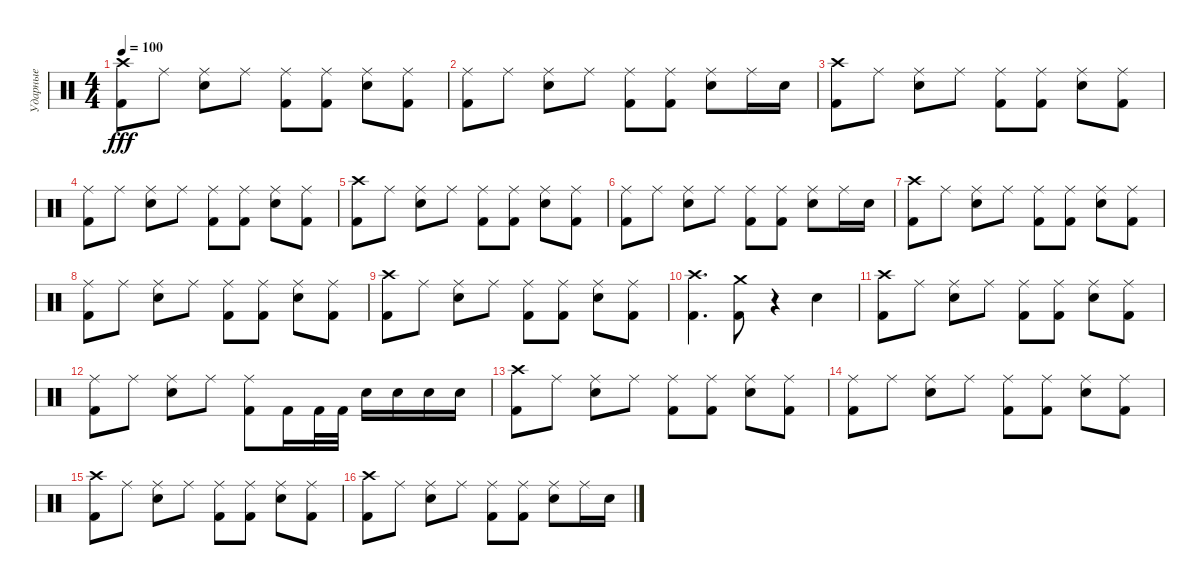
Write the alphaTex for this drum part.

\track ("Ударные" "Ударные") {instrument percussion}
\staff {score}
\articulation defaults
\ts (4 4)
\tempo 100
\clef neutral
\ks c
("Kick (hit) 2" "Crash high (hit)").8{dy fff} "Ride (middle)".8 ("Electric Snare (hit)" "Ride (middle)").8 "Ride (middle)".8 ("Kick (hit) 2" "Ride (middle)").8 ("Kick (hit) 2" "Ride (middle)").8 ("Electric Snare (hit)" "Ride (middle)").8 ("Ride (middle)" "Kick (hit) 2").8 |
("Kick (hit) 2" "Ride (middle)").8 "Ride (middle)".8 ("Electric Snare (hit)" "Ride (middle)").8 "Ride (middle)".8 ("Kick (hit) 2" "Ride (middle)").8 ("Kick (hit) 2" "Ride (middle)").8 ("Electric Snare (hit)" "Ride (middle)").8 "Ride (middle)".16 "Electric Snare (hit)".16 |
("Kick (hit) 2" "Crash high (hit)").8 "Ride (middle)".8 ("Electric Snare (hit)" "Ride (middle)").8 "Ride (middle)".8 ("Kick (hit) 2" "Ride (middle)").8 ("Kick (hit) 2" "Ride (middle)").8 ("Electric Snare (hit)" "Ride (middle)").8 ("Ride (middle)" "Kick (hit) 2").8 |
("Kick (hit) 2" "Ride (middle)").8 "Ride (middle)".8 ("Electric Snare (hit)" "Ride (middle)").8 "Ride (middle)".8 ("Kick (hit) 2" "Ride (middle)").8 ("Kick (hit) 2" "Ride (middle)").8 ("Electric Snare (hit)" "Ride (middle)").8 ("Ride (middle)" "Kick (hit) 2").8 |
("Kick (hit) 2" "Crash high (hit)").8 "Ride (middle)".8 ("Electric Snare (hit)" "Ride (middle)").8 "Ride (middle)".8 ("Kick (hit) 2" "Ride (middle)").8 ("Kick (hit) 2" "Ride (middle)").8 ("Electric Snare (hit)" "Ride (middle)").8 ("Ride (middle)" "Kick (hit) 2").8 |
("Kick (hit) 2" "Ride (middle)").8 "Ride (middle)".8 ("Electric Snare (hit)" "Ride (middle)").8 "Ride (middle)".8 ("Kick (hit) 2" "Ride (middle)").8 ("Kick (hit) 2" "Ride (middle)").8 ("Electric Snare (hit)" "Ride (middle)").8 "Ride (middle)".16 "Electric Snare (hit)".16 |
("Kick (hit) 2" "Crash high (hit)").8 "Ride (middle)".8 ("Electric Snare (hit)" "Ride (middle)").8 "Ride (middle)".8 ("Kick (hit) 2" "Ride (middle)").8 ("Kick (hit) 2" "Ride (middle)").8 ("Electric Snare (hit)" "Ride (middle)").8 ("Ride (middle)" "Kick (hit) 2").8 |
("Kick (hit) 2" "Ride (middle)").8 "Ride (middle)".8 ("Electric Snare (hit)" "Ride (middle)").8 "Ride (middle)".8 ("Kick (hit) 2" "Ride (middle)").8 ("Kick (hit) 2" "Ride (middle)").8 ("Electric Snare (hit)" "Ride (middle)").8 ("Ride (middle)" "Kick (hit) 2").8 |
("Kick (hit) 2" "Crash high (hit)").8 "Ride (middle)".8 ("Electric Snare (hit)" "Ride (middle)").8 "Ride (middle)".8 ("Kick (hit) 2" "Ride (middle)").8 ("Kick (hit) 2" "Ride (middle)").8 ("Electric Snare (hit)" "Ride (middle)").8 ("Ride (middle)" "Kick (hit) 2").8 |
("Kick (hit) 2" "Crash high (hit)").4{d} ("Kick (hit) 2" "Crash medium (hit)").8 r.4 "Electric Snare (hit)".4 |
("Kick (hit) 2" "Crash high (hit)").8 "Ride (middle)".8 ("Electric Snare (hit)" "Ride (middle)").8 "Ride (middle)".8 ("Kick (hit) 2" "Ride (middle)").8 ("Kick (hit) 2" "Ride (middle)").8 ("Electric Snare (hit)" "Ride (middle)").8 ("Ride (middle)" "Kick (hit) 2").8 |
("Kick (hit) 2" "Ride (middle)").8 "Ride (middle)".8 ("Electric Snare (hit)" "Ride (middle)").8 "Ride (middle)".8 ("Kick (hit) 2" "Ride (middle)").8 "Kick (hit) 2".16 "Kick (hit) 2".32 "Kick (hit) 2".32 "Electric Snare (hit)".16 "Electric Snare (hit)".16 "Electric Snare (hit)".16 "Electric Snare (hit)".16 |
("Kick (hit) 2" "Crash high (hit)").8 "Ride (middle)".8 ("Electric Snare (hit)" "Ride (middle)").8 "Ride (middle)".8 ("Kick (hit) 2" "Ride (middle)").8 ("Kick (hit) 2" "Ride (middle)").8 ("Electric Snare (hit)" "Ride (middle)").8 ("Ride (middle)" "Kick (hit) 2").8 |
("Kick (hit) 2" "Ride (middle)").8 "Ride (middle)".8 ("Electric Snare (hit)" "Ride (middle)").8 "Ride (middle)".8 ("Kick (hit) 2" "Ride (middle)").8 ("Kick (hit) 2" "Ride (middle)").8 ("Electric Snare (hit)" "Ride (middle)").8 ("Ride (middle)" "Kick (hit) 2").8 |
("Kick (hit) 2" "Crash high (hit)").8 "Ride (middle)".8 ("Electric Snare (hit)" "Ride (middle)").8 "Ride (middle)".8 ("Kick (hit) 2" "Ride (middle)").8 ("Kick (hit) 2" "Ride (middle)").8 ("Electric Snare (hit)" "Ride (middle)").8 ("Ride (middle)" "Kick (hit) 2").8 |
("Kick (hit) 2" "Crash high (hit)").8 "Ride (middle)".8 ("Electric Snare (hit)" "Ride (middle)").8 "Ride (middle)".8 ("Kick (hit) 2" "Ride (middle)").8 ("Kick (hit) 2" "Ride (middle)").8 ("Electric Snare (hit)" "Ride (middle)").8 "Ride (middle)".16 "Electric Snare (hit)".16
